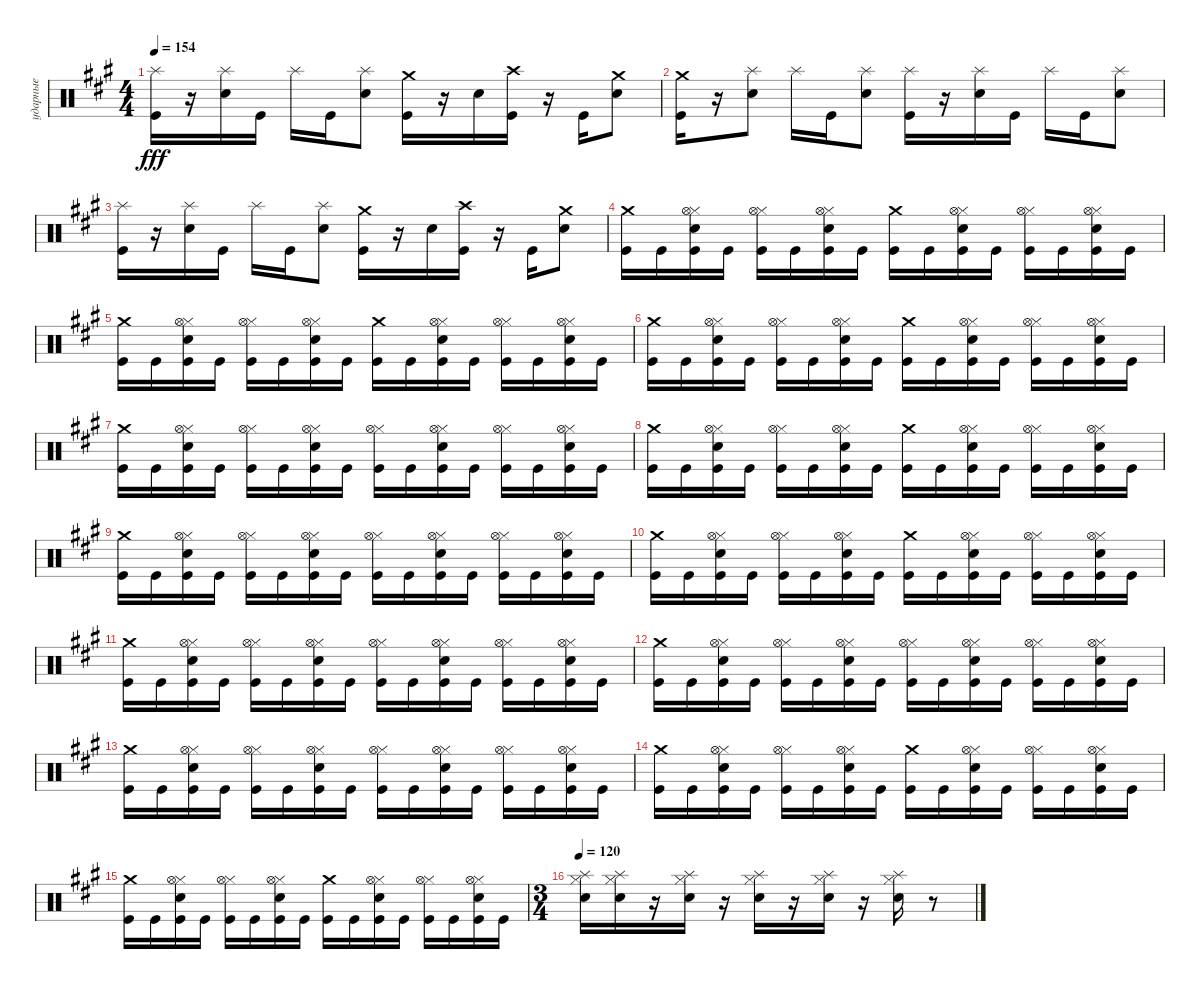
\track ("ударные" "ударные") {instrument percussion}
\staff {score}
\articulation defaults
\ts (4 4)
\tempo 154
\clef neutral
\ks f#minor
("Kick (hit)" "Splash (hit)").16{dy fff} r.16 ("Snare (hit) 2" "Splash (hit)").16 "Kick (hit)".16 "Splash (hit)".16 "Kick (hit)".16 ("Snare (hit) 2" "Splash (hit)").8 ("Crash medium (hit)" "Kick (hit)").16 r.16 "Snare (hit) 2".16 ("Kick (hit)" "Crash high (hit)").16 r.16 "Kick (hit)".16 ("Crash medium (hit)" "Snare (hit) 2").8 |
("Kick (hit)" "Crash medium (hit)").16 r.16 ("Snare (hit) 2" "Splash (hit)").8 "Splash (hit)".16 "Kick (hit)".16 ("Snare (hit) 2" "Splash (hit)").8 ("Kick (hit)" "Splash (hit)").16 r.16 ("Snare (hit) 2" "Splash (hit)").16 "Kick (hit)".16 "Splash (hit)".16 "Kick (hit)".16 ("Snare (hit) 2" "Splash (hit)").8 |
("Kick (hit)" "Splash (hit)").16 r.16 ("Snare (hit) 2" "Splash (hit)").16 "Kick (hit)".16 "Splash (hit)".16 "Kick (hit)".16 ("Snare (hit) 2" "Splash (hit)").8 ("Crash medium (hit)" "Kick (hit)").16 r.16 "Snare (hit) 2".16 ("Kick (hit)" "Crash high (hit)").16 r.16 "Kick (hit)".16 ("Crash medium (hit)" "Snare (hit) 2").8 |
("Crash medium (hit)" "Kick (hit)").16 "Kick (hit)".16 ("Snare (hit) 2" "Hi-Hat (closed)" "Kick (hit)" "Hi-Hat (open)").16 "Kick (hit)".16 ("Hi-Hat (closed)" "Kick (hit)" "Hi-Hat (open)").16 "Kick (hit)".16 ("Snare (hit) 2" "Hi-Hat (closed)" "Kick (hit)" "Hi-Hat (open)").16 "Kick (hit)".16 ("Crash medium (hit)" "Kick (hit)").16 "Kick (hit)".16 ("Snare (hit) 2" "Hi-Hat (closed)" "Kick (hit)" "Hi-Hat (open)").16 "Kick (hit)".16 ("Hi-Hat (closed)" "Kick (hit)" "Hi-Hat (open)").16 "Kick (hit)".16 ("Snare (hit) 2" "Hi-Hat (closed)" "Kick (hit)" "Hi-Hat (open)").16 "Kick (hit)".16 |
("Crash medium (hit)" "Kick (hit)").16 "Kick (hit)".16 ("Snare (hit) 2" "Hi-Hat (closed)" "Kick (hit)" "Hi-Hat (open)").16 "Kick (hit)".16 ("Hi-Hat (closed)" "Kick (hit)" "Hi-Hat (open)").16 "Kick (hit)".16 ("Snare (hit) 2" "Hi-Hat (closed)" "Kick (hit)" "Hi-Hat (open)").16 "Kick (hit)".16 ("Crash medium (hit)" "Kick (hit)").16 "Kick (hit)".16 ("Snare (hit) 2" "Hi-Hat (closed)" "Kick (hit)" "Hi-Hat (open)").16 "Kick (hit)".16 ("Hi-Hat (closed)" "Kick (hit)" "Hi-Hat (open)").16 "Kick (hit)".16 ("Snare (hit) 2" "Hi-Hat (closed)" "Kick (hit)" "Hi-Hat (open)").16 "Kick (hit)".16 |
("Crash medium (hit)" "Kick (hit)").16 "Kick (hit)".16 ("Snare (hit) 2" "Hi-Hat (closed)" "Kick (hit)" "Hi-Hat (open)").16 "Kick (hit)".16 ("Hi-Hat (closed)" "Kick (hit)" "Hi-Hat (open)").16 "Kick (hit)".16 ("Snare (hit) 2" "Hi-Hat (closed)" "Kick (hit)" "Hi-Hat (open)").16 "Kick (hit)".16 ("Crash medium (hit)" "Kick (hit)").16 "Kick (hit)".16 ("Snare (hit) 2" "Hi-Hat (closed)" "Kick (hit)" "Hi-Hat (open)").16 "Kick (hit)".16 ("Hi-Hat (closed)" "Kick (hit)" "Hi-Hat (open)").16 "Kick (hit)".16 ("Snare (hit) 2" "Hi-Hat (closed)" "Kick (hit)" "Hi-Hat (open)").16 "Kick (hit)".16 |
("Crash medium (hit)" "Kick (hit)").16 "Kick (hit)".16 ("Snare (hit) 2" "Hi-Hat (closed)" "Kick (hit)" "Hi-Hat (open)").16 "Kick (hit)".16 ("Hi-Hat (closed)" "Kick (hit)" "Hi-Hat (open)").16 "Kick (hit)".16 ("Snare (hit) 2" "Hi-Hat (closed)" "Kick (hit)" "Hi-Hat (open)").16 "Kick (hit)".16 ("Hi-Hat (closed)" "Kick (hit)" "Hi-Hat (open)").16 "Kick (hit)".16 ("Snare (hit) 2" "Hi-Hat (closed)" "Kick (hit)" "Hi-Hat (open)").16 "Kick (hit)".16 ("Hi-Hat (closed)" "Kick (hit)" "Hi-Hat (open)").16 "Kick (hit)".16 ("Snare (hit) 2" "Hi-Hat (closed)" "Kick (hit)" "Hi-Hat (open)").16 "Kick (hit)".16 |
("Crash medium (hit)" "Kick (hit)").16 "Kick (hit)".16 ("Snare (hit) 2" "Hi-Hat (closed)" "Kick (hit)" "Hi-Hat (open)").16 "Kick (hit)".16 ("Hi-Hat (closed)" "Kick (hit)" "Hi-Hat (open)").16 "Kick (hit)".16 ("Snare (hit) 2" "Hi-Hat (closed)" "Kick (hit)" "Hi-Hat (open)").16 "Kick (hit)".16 ("Crash medium (hit)" "Kick (hit)").16 "Kick (hit)".16 ("Snare (hit) 2" "Hi-Hat (closed)" "Kick (hit)" "Hi-Hat (open)").16 "Kick (hit)".16 ("Hi-Hat (closed)" "Kick (hit)" "Hi-Hat (open)").16 "Kick (hit)".16 ("Snare (hit) 2" "Hi-Hat (closed)" "Kick (hit)" "Hi-Hat (open)").16 "Kick (hit)".16 |
("Crash medium (hit)" "Kick (hit)").16 "Kick (hit)".16 ("Snare (hit) 2" "Hi-Hat (closed)" "Kick (hit)" "Hi-Hat (open)").16 "Kick (hit)".16 ("Hi-Hat (closed)" "Kick (hit)" "Hi-Hat (open)").16 "Kick (hit)".16 ("Snare (hit) 2" "Hi-Hat (closed)" "Kick (hit)" "Hi-Hat (open)").16 "Kick (hit)".16 ("Hi-Hat (closed)" "Kick (hit)" "Hi-Hat (open)").16 "Kick (hit)".16 ("Snare (hit) 2" "Hi-Hat (closed)" "Kick (hit)" "Hi-Hat (open)").16 "Kick (hit)".16 ("Hi-Hat (closed)" "Kick (hit)" "Hi-Hat (open)").16 "Kick (hit)".16 ("Snare (hit) 2" "Hi-Hat (closed)" "Kick (hit)" "Hi-Hat (open)").16 "Kick (hit)".16 |
("Crash medium (hit)" "Kick (hit)").16 "Kick (hit)".16 ("Snare (hit) 2" "Hi-Hat (closed)" "Kick (hit)" "Hi-Hat (open)").16 "Kick (hit)".16 ("Hi-Hat (closed)" "Kick (hit)" "Hi-Hat (open)").16 "Kick (hit)".16 ("Snare (hit) 2" "Hi-Hat (closed)" "Kick (hit)" "Hi-Hat (open)").16 "Kick (hit)".16 ("Crash medium (hit)" "Kick (hit)").16 "Kick (hit)".16 ("Snare (hit) 2" "Hi-Hat (closed)" "Kick (hit)" "Hi-Hat (open)").16 "Kick (hit)".16 ("Hi-Hat (closed)" "Kick (hit)" "Hi-Hat (open)").16 "Kick (hit)".16 ("Snare (hit) 2" "Hi-Hat (closed)" "Kick (hit)" "Hi-Hat (open)").16 "Kick (hit)".16 |
("Crash medium (hit)" "Kick (hit)").16 "Kick (hit)".16 ("Snare (hit) 2" "Hi-Hat (closed)" "Kick (hit)" "Hi-Hat (open)").16 "Kick (hit)".16 ("Hi-Hat (closed)" "Kick (hit)" "Hi-Hat (open)").16 "Kick (hit)".16 ("Snare (hit) 2" "Hi-Hat (closed)" "Kick (hit)" "Hi-Hat (open)").16 "Kick (hit)".16 ("Hi-Hat (closed)" "Kick (hit)" "Hi-Hat (open)").16 "Kick (hit)".16 ("Snare (hit) 2" "Hi-Hat (closed)" "Kick (hit)" "Hi-Hat (open)").16 "Kick (hit)".16 ("Hi-Hat (closed)" "Kick (hit)" "Hi-Hat (open)").16 "Kick (hit)".16 ("Snare (hit) 2" "Hi-Hat (closed)" "Kick (hit)" "Hi-Hat (open)").16 "Kick (hit)".16 |
("Crash medium (hit)" "Kick (hit)").16 "Kick (hit)".16 ("Snare (hit) 2" "Hi-Hat (closed)" "Kick (hit)" "Hi-Hat (open)").16 "Kick (hit)".16 ("Hi-Hat (closed)" "Kick (hit)" "Hi-Hat (open)").16 "Kick (hit)".16 ("Snare (hit) 2" "Hi-Hat (closed)" "Kick (hit)" "Hi-Hat (open)").16 "Kick (hit)".16 ("Hi-Hat (closed)" "Kick (hit)" "Hi-Hat (open)").16 "Kick (hit)".16 ("Snare (hit) 2" "Hi-Hat (closed)" "Kick (hit)" "Hi-Hat (open)").16 "Kick (hit)".16 ("Hi-Hat (closed)" "Kick (hit)" "Hi-Hat (open)").16 "Kick (hit)".16 ("Snare (hit) 2" "Hi-Hat (closed)" "Kick (hit)" "Hi-Hat (open)").16 "Kick (hit)".16 |
("Crash medium (hit)" "Kick (hit)").16 "Kick (hit)".16 ("Snare (hit) 2" "Hi-Hat (closed)" "Kick (hit)" "Hi-Hat (open)").16 "Kick (hit)".16 ("Hi-Hat (closed)" "Kick (hit)" "Hi-Hat (open)").16 "Kick (hit)".16 ("Snare (hit) 2" "Hi-Hat (closed)" "Kick (hit)" "Hi-Hat (open)").16 "Kick (hit)".16 ("Hi-Hat (closed)" "Kick (hit)" "Hi-Hat (open)").16 "Kick (hit)".16 ("Snare (hit) 2" "Hi-Hat (closed)" "Kick (hit)" "Hi-Hat (open)").16 "Kick (hit)".16 ("Hi-Hat (closed)" "Kick (hit)" "Hi-Hat (open)").16 "Kick (hit)".16 ("Snare (hit) 2" "Hi-Hat (closed)" "Kick (hit)" "Hi-Hat (open)").16 "Kick (hit)".16 |
("Crash medium (hit)" "Kick (hit)").16 "Kick (hit)".16 ("Snare (hit) 2" "Hi-Hat (closed)" "Kick (hit)" "Hi-Hat (open)").16 "Kick (hit)".16 ("Hi-Hat (closed)" "Kick (hit)" "Hi-Hat (open)").16 "Kick (hit)".16 ("Snare (hit) 2" "Hi-Hat (closed)" "Kick (hit)" "Hi-Hat (open)").16 "Kick (hit)".16 ("Crash medium (hit)" "Kick (hit)").16 "Kick (hit)".16 ("Snare (hit) 2" "Hi-Hat (closed)" "Kick (hit)" "Hi-Hat (open)").16 "Kick (hit)".16 ("Hi-Hat (closed)" "Kick (hit)" "Hi-Hat (open)").16 "Kick (hit)".16 ("Snare (hit) 2" "Hi-Hat (closed)" "Kick (hit)" "Hi-Hat (open)").16 "Kick (hit)".16 |
("Crash medium (hit)" "Kick (hit)").16 "Kick (hit)".16 ("Snare (hit) 2" "Hi-Hat (closed)" "Kick (hit)" "Hi-Hat (open)").16 "Kick (hit)".16 ("Hi-Hat (closed)" "Kick (hit)" "Hi-Hat (open)").16 "Kick (hit)".16 ("Snare (hit) 2" "Hi-Hat (closed)" "Kick (hit)" "Hi-Hat (open)").16 "Kick (hit)".16 ("Crash medium (hit)" "Kick (hit)").16 "Kick (hit)".16 ("Snare (hit) 2" "Hi-Hat (closed)" "Kick (hit)" "Hi-Hat (open)").16 "Kick (hit)".16 ("Hi-Hat (closed)" "Kick (hit)" "Hi-Hat (open)").16 "Kick (hit)".16 ("Snare (hit) 2" "Hi-Hat (closed)" "Kick (hit)" "Hi-Hat (open)").16 "Kick (hit)".16 |
\ts (3 4)
\tempo 120
("Snare (hit) 2" "Splash (hit)" "Hi-Hat (closed)").16 ("Snare (hit) 2" "Splash (hit)" "Hi-Hat (closed)").16 r.16 ("Snare (hit) 2" "Splash (hit)" "Hi-Hat (closed)").16 r.16 ("Snare (hit) 2" "Splash (hit)" "Hi-Hat (closed)").16 r.16 ("Snare (hit) 2" "Splash (hit)" "Hi-Hat (closed)").16 r.16 ("Snare (hit) 2" "Splash (hit)" "Hi-Hat (closed)").16 r.8
